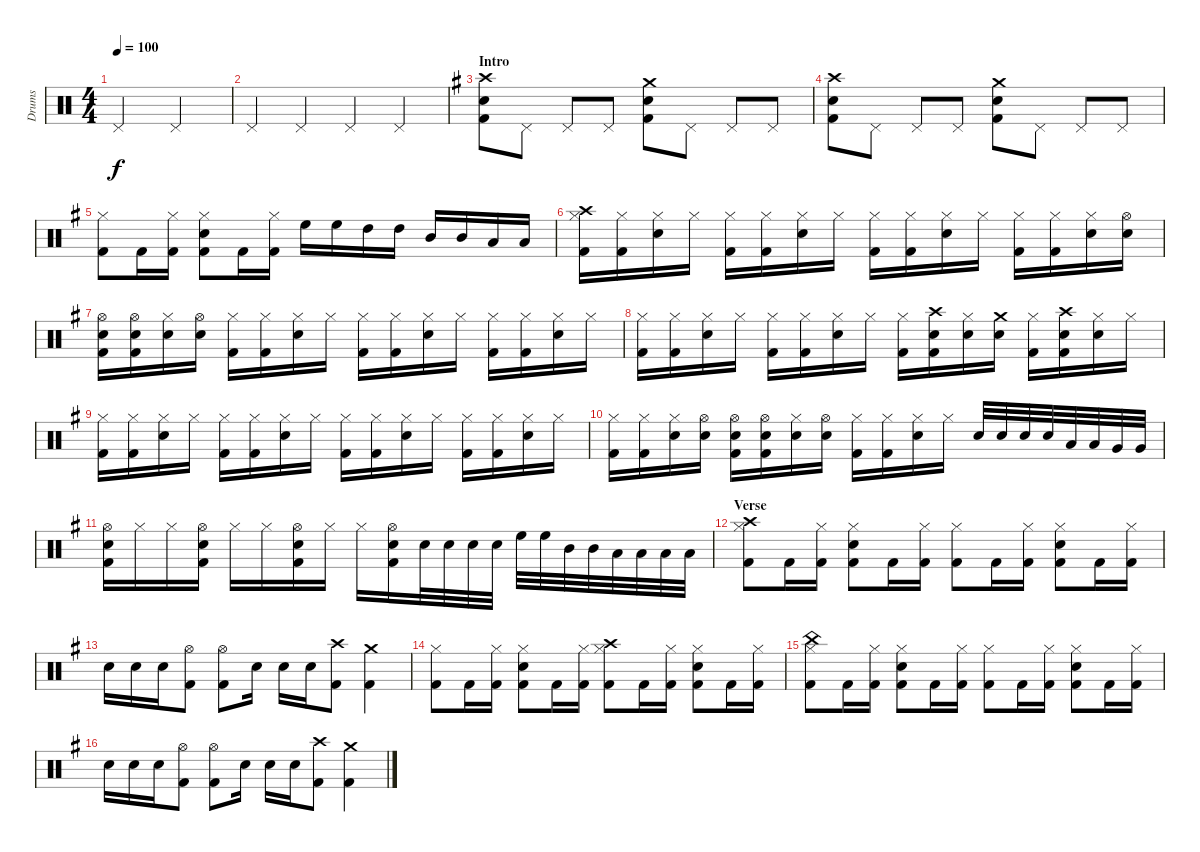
\track ("Drums" "Drums") {instrument percussion}
\staff {score}
\articulation defaults
\ts (4 4)
\tempo 100
\clef neutral
\ks c "Pedal Hi-Hat (hit)".2{dy f} "Pedal Hi-Hat (hit)".2
|
"Pedal Hi-Hat (hit)".4 "Pedal Hi-Hat (hit)".4 "Pedal Hi-Hat (hit)".4 "Pedal Hi-Hat (hit)".4 |
\section ("" "Intro")
\ks eminor
("Crash high (hit)" "Snare (hit) 2" "Kick (hit) 2").8 "Pedal Hi-Hat (hit)".8 "Pedal Hi-Hat (hit)".8 "Pedal Hi-Hat (hit)".8 ("Crash medium (hit)" "Snare (hit) 2" "Kick (hit) 2").8 "Pedal Hi-Hat (hit)".8 "Pedal Hi-Hat (hit)".8 "Pedal Hi-Hat (hit)".8 |
("Crash high (hit)" "Snare (hit) 2" "Kick (hit) 2").8 "Pedal Hi-Hat (hit)".8 "Pedal Hi-Hat (hit)".8 "Pedal Hi-Hat (hit)".8 ("Crash medium (hit)" "Snare (hit) 2" "Kick (hit) 2").8 "Pedal Hi-Hat (hit)".8 "Pedal Hi-Hat (hit)".8 "Pedal Hi-Hat (hit)".8 |
("Hi-Hat (closed)" "Kick (hit) 2").8 "Kick (hit) 2".16 ("Hi-Hat (closed)" "Kick (hit) 2").16 ("Hi-Hat (closed)" "Kick (hit) 2" "Snare (hit) 2").8 "Kick (hit) 2".16 ("Hi-Hat (closed)" "Kick (hit) 2").16 "High Floor Tom (hit)".16 "High Floor Tom (hit)".16 "High Tom (hit)".16 "High Tom (hit)".16 "Mid Tom (hit)".16 "Mid Tom (hit)".16 "Low Tom (hit)".16 "Low Tom (hit)".16 |
("Hi-Hat (closed)" "Crash high (hit)" "Kick (hit) 2").16 ("Hi-Hat (closed)" "Kick (hit) 2").16 ("Hi-Hat (closed)" "Snare (hit) 2").16 "Hi-Hat (closed)".16 ("Hi-Hat (closed)" "Kick (hit) 2").16 ("Hi-Hat (closed)" "Kick (hit) 2").16 ("Hi-Hat (closed)" "Snare (hit) 2").16 "Hi-Hat (closed)".16 ("Hi-Hat (closed)" "Kick (hit) 2").16 ("Hi-Hat (closed)" "Kick (hit) 2").16 ("Hi-Hat (closed)" "Snare (hit) 2").16 "Hi-Hat (closed)".16 ("Hi-Hat (closed)" "Kick (hit) 2").16 ("Hi-Hat (closed)" "Kick (hit) 2").16 ("Hi-Hat (closed)" "Snare (hit) 2").16 ("Hi-Hat (open)" "Snare (hit) 2").16 |
("Hi-Hat (open)" "Snare (hit) 2" "Kick (hit) 2").16 ("Hi-Hat (open)" "Snare (hit) 2" "Kick (hit) 2").16 ("Hi-Hat (closed)" "Snare (hit) 2").16 ("Hi-Hat (open)" "Snare (hit) 2").16 ("Hi-Hat (closed)" "Kick (hit) 2").16 ("Hi-Hat (closed)" "Kick (hit) 2").16 ("Hi-Hat (closed)" "Snare (hit) 2").16 "Hi-Hat (closed)".16 ("Hi-Hat (closed)" "Kick (hit) 2").16 ("Hi-Hat (closed)" "Kick (hit) 2").16 ("Hi-Hat (closed)" "Snare (hit) 2").16 "Hi-Hat (closed)".16 ("Hi-Hat (closed)" "Kick (hit) 2").16 ("Hi-Hat (closed)" "Kick (hit) 2").16 ("Hi-Hat (closed)" "Snare (hit) 2").16 "Hi-Hat (closed)".16 |
("Hi-Hat (closed)" "Kick (hit) 2").16 ("Hi-Hat (closed)" "Kick (hit) 2").16 ("Hi-Hat (closed)" "Snare (hit) 2").16 "Hi-Hat (closed)".16 ("Hi-Hat (closed)" "Kick (hit) 2").16 ("Hi-Hat (closed)" "Kick (hit) 2").16 ("Hi-Hat (closed)" "Snare (hit) 2").16 "Hi-Hat (closed)".16 ("Hi-Hat (closed)" "Kick (hit) 2").16 ("Crash high (hit)" "Snare (hit) 2" "Kick (hit) 2").16 ("Hi-Hat (closed)" "Snare (hit) 2").16 ("Crash medium (hit)" "Snare (hit) 2").16 ("Hi-Hat (closed)" "Kick (hit) 2").16 ("Crash high (hit)" "Snare (hit) 2" "Kick (hit) 2").16 ("Hi-Hat (closed)" "Snare (hit) 2").16 "Hi-Hat (closed)".16 |
("Hi-Hat (closed)" "Kick (hit) 2").16 ("Hi-Hat (closed)" "Kick (hit) 2").16 ("Hi-Hat (closed)" "Snare (hit) 2").16 "Hi-Hat (closed)".16 ("Hi-Hat (closed)" "Kick (hit) 2").16 ("Hi-Hat (closed)" "Kick (hit) 2").16 ("Hi-Hat (closed)" "Snare (hit) 2").16 "Hi-Hat (closed)".16 ("Hi-Hat (closed)" "Kick (hit) 2").16 ("Hi-Hat (closed)" "Kick (hit) 2").16 ("Hi-Hat (closed)" "Snare (hit) 2").16 "Hi-Hat (closed)".16 ("Hi-Hat (closed)" "Kick (hit) 2").16 ("Hi-Hat (closed)" "Kick (hit) 2").16 ("Hi-Hat (closed)" "Snare (hit) 2").16 "Hi-Hat (closed)".16 |
("Hi-Hat (closed)" "Kick (hit) 2").16 ("Hi-Hat (closed)" "Kick (hit) 2").16 ("Hi-Hat (closed)" "Snare (hit) 2").16 ("Hi-Hat (open)" "Snare (hit) 2").16 ("Hi-Hat (open)" "Snare (hit) 2" "Kick (hit) 2").16 ("Hi-Hat (open)" "Snare (hit) 2" "Kick (hit) 2").16 ("Hi-Hat (closed)" "Snare (hit) 2").16 ("Hi-Hat (open)" "Snare (hit) 2").16 ("Hi-Hat (closed)" "Kick (hit) 2").16 ("Hi-Hat (closed)" "Kick (hit) 2").16 ("Hi-Hat (closed)" "Snare (hit) 2").16 "Hi-Hat (closed)".16 "Snare (hit) 2".32 "Snare (hit) 2".32 "Snare (hit) 2".32 "Snare (hit) 2".32 "Low Floor Tom (hit)".32 "Low Floor Tom (hit)".32 "Very Low Tom (hit)".32 "Very Low Tom (hit)".32 |
("Hi-Hat (open)" "Snare (hit) 2" "Kick (hit) 2").16 "Hi-Hat (closed)".16 "Hi-Hat (closed)".16 ("Hi-Hat (open)" "Snare (hit) 2" "Kick (hit) 2").16 "Hi-Hat (closed)".16 "Hi-Hat (closed)".16 ("Hi-Hat (open)" "Snare (hit) 2" "Kick (hit) 2").16 "Hi-Hat (closed)".16 "Hi-Hat (closed)".16 ("Hi-Hat (open)" "Snare (hit) 2" "Kick (hit) 2").16 "Snare (hit) 2".32 "Snare (hit) 2".32 "Snare (hit) 2".32 "Snare (hit) 2".32 "High Floor Tom (hit)".32 "High Floor Tom (hit)".32 "Mid Tom (hit)".32 "Mid Tom (hit)".32 "Low Tom (hit)".32 "Low Tom (hit)".32 "Low Floor Tom (hit)".32 "Low Floor Tom (hit)".32 |
\section ("" "Verse")
("Hi-Hat (closed)" "Kick (hit) 2" "Crash high (hit)").8 "Kick (hit) 2".16 ("Hi-Hat (closed)" "Kick (hit) 2").16 ("Hi-Hat (closed)" "Kick (hit) 2" "Snare (hit) 2").8 "Kick (hit) 2".16 ("Hi-Hat (closed)" "Kick (hit) 2").16 ("Hi-Hat (closed)" "Kick (hit) 2").8 "Kick (hit) 2".16 ("Hi-Hat (closed)" "Kick (hit) 2").16 ("Hi-Hat (closed)" "Kick (hit) 2" "Snare (hit) 2").8 "Kick (hit) 2".16 ("Hi-Hat (closed)" "Kick (hit) 2").16 |
"Snare (hit) 2".16 "Snare (hit) 2".16 "Snare (hit) 2".16 ("Hi-Hat (open)" "Kick (hit) 2").8 ("Hi-Hat (open)" "Kick (hit) 2").8 "Snare (hit) 2".16 "Snare (hit) 2".16 "Snare (hit) 2".16 ("Crash high (hit)" "Kick (hit) 2").8 ("Crash medium (hit)" "Kick (hit) 2").4 |
("Hi-Hat (closed)" "Kick (hit) 2").8 "Kick (hit) 2".16 ("Hi-Hat (closed)" "Kick (hit) 2").16 ("Hi-Hat (closed)" "Kick (hit) 2" "Snare (hit) 2").8 "Kick (hit) 2".16 ("Hi-Hat (closed)" "Kick (hit) 2").16 ("Hi-Hat (closed)" "Kick (hit) 2" "Crash high (hit)").8 "Kick (hit) 2".16 ("Hi-Hat (closed)" "Kick (hit) 2").16 ("Hi-Hat (closed)" "Kick (hit) 2" "Snare (hit) 2").8 "Kick (hit) 2".16 ("Hi-Hat (closed)" "Kick (hit) 2").16 |
("Hi-Hat (closed)" "Kick (hit) 2" "China (hit)").8 "Kick (hit) 2".16 ("Hi-Hat (closed)" "Kick (hit) 2").16 ("Hi-Hat (closed)" "Kick (hit) 2" "Snare (hit) 2").8 "Kick (hit) 2".16 ("Hi-Hat (closed)" "Kick (hit) 2").16 ("Hi-Hat (closed)" "Kick (hit) 2").8 "Kick (hit) 2".16 ("Hi-Hat (closed)" "Kick (hit) 2").16 ("Hi-Hat (closed)" "Kick (hit) 2" "Snare (hit) 2").8 "Kick (hit) 2".16 ("Hi-Hat (closed)" "Kick (hit) 2").16 |
"Snare (hit) 2".16 "Snare (hit) 2".16 "Snare (hit) 2".16 ("Hi-Hat (open)" "Kick (hit) 2").8 ("Hi-Hat (open)" "Kick (hit) 2").8 "Snare (hit) 2".16 "Snare (hit) 2".16 "Snare (hit) 2".16 ("Crash high (hit)" "Kick (hit) 2").8 ("Crash medium (hit)" "Kick (hit) 2").4
